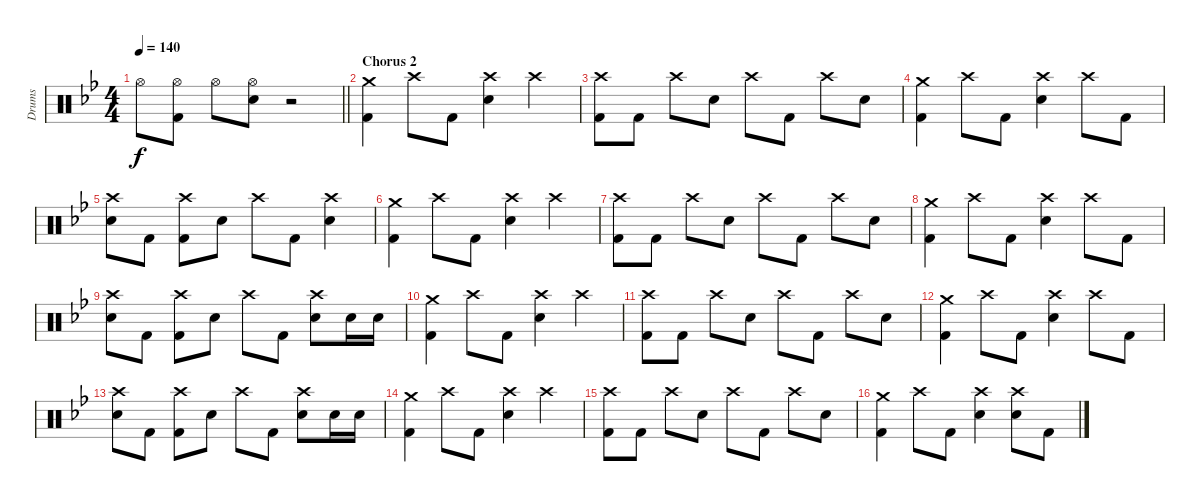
\track ("Drums" "Drums") {instrument percussion}
\staff {score}
\articulation defaults
\ts (4 4)
\tempo 140
\clef neutral
\barLineRight lightlight
\ks gminor "Hi-Hat (open)".8{dy f}
("Hi-Hat (open)" "Kick (hit) 2").8 "Hi-Hat (open)".8 ("Hi-Hat (open)" "Electric Snare (hit)").8 r.2 |
\section ("" "Chorus 2")
("Crash medium (hit)" "Kick (hit) 2").4 "Crash high (hit)".8 "Kick (hit) 2".8 ("Crash high (hit)" "Electric Snare (hit)").4 "Crash high (hit)".4 |
("Crash high (hit)" "Kick (hit) 2").8 "Kick (hit) 2".8 "Crash high (hit)".8 "Electric Snare (hit)".8 "Crash high (hit)".8 "Kick (hit) 2".8 "Crash high (hit)".8 "Electric Snare (hit)".8 |
("Crash medium (hit)" "Kick (hit) 2").4 "Crash high (hit)".8 "Kick (hit) 2".8 ("Crash high (hit)" "Electric Snare (hit)").4 "Crash high (hit)".8 "Kick (hit) 2".8 |
("Crash high (hit)" "Electric Snare (hit)").8 "Kick (hit) 2".8 ("Crash high (hit)" "Kick (hit) 2").8 "Electric Snare (hit)".8 "Crash high (hit)".8 "Kick (hit) 2".8 ("Crash high (hit)" "Electric Snare (hit)").4 |
("Crash medium (hit)" "Kick (hit) 2").4 "Crash high (hit)".8 "Kick (hit) 2".8 ("Crash high (hit)" "Electric Snare (hit)").4 "Crash high (hit)".4 |
("Crash high (hit)" "Kick (hit) 2").8 "Kick (hit) 2".8 "Crash high (hit)".8 "Electric Snare (hit)".8 "Crash high (hit)".8 "Kick (hit) 2".8 "Crash high (hit)".8 "Electric Snare (hit)".8 |
("Crash medium (hit)" "Kick (hit) 2").4 "Crash high (hit)".8 "Kick (hit) 2".8 ("Crash high (hit)" "Electric Snare (hit)").4 "Crash high (hit)".8 "Kick (hit) 2".8 |
("Crash high (hit)" "Electric Snare (hit)").8 "Kick (hit) 2".8 ("Crash high (hit)" "Kick (hit) 2").8 "Electric Snare (hit)".8 "Crash high (hit)".8 "Kick (hit) 2".8 ("Crash high (hit)" "Electric Snare (hit)").8 "Electric Snare (hit)".16 "Electric Snare (hit)".16 |
("Crash medium (hit)" "Kick (hit) 2").4 "Crash high (hit)".8 "Kick (hit) 2".8 ("Crash high (hit)" "Electric Snare (hit)").4 "Crash high (hit)".4 |
("Crash high (hit)" "Kick (hit) 2").8 "Kick (hit) 2".8 "Crash high (hit)".8 "Electric Snare (hit)".8 "Crash high (hit)".8 "Kick (hit) 2".8 "Crash high (hit)".8 "Electric Snare (hit)".8 |
("Crash medium (hit)" "Kick (hit) 2").4 "Crash high (hit)".8 "Kick (hit) 2".8 ("Crash high (hit)" "Electric Snare (hit)").4 "Crash high (hit)".8 "Kick (hit) 2".8 |
("Crash high (hit)" "Electric Snare (hit)").8 "Kick (hit) 2".8 ("Crash high (hit)" "Kick (hit) 2").8 "Electric Snare (hit)".8 "Crash high (hit)".8 "Kick (hit) 2".8 ("Crash high (hit)" "Electric Snare (hit)").8 "Electric Snare (hit)".16 "Electric Snare (hit)".16 |
("Crash medium (hit)" "Kick (hit) 2").4 "Crash high (hit)".8 "Kick (hit) 2".8 ("Crash high (hit)" "Electric Snare (hit)").4 "Crash high (hit)".4 |
("Crash high (hit)" "Kick (hit) 2").8 "Kick (hit) 2".8 "Crash high (hit)".8 "Electric Snare (hit)".8 "Crash high (hit)".8 "Kick (hit) 2".8 "Crash high (hit)".8 "Electric Snare (hit)".8 |
("Crash medium (hit)" "Kick (hit) 2").4 "Crash high (hit)".8 "Kick (hit) 2".8 ("Crash high (hit)" "Electric Snare (hit)").4 ("Crash high (hit)" "Electric Snare (hit)").8 "Kick (hit) 2".8
